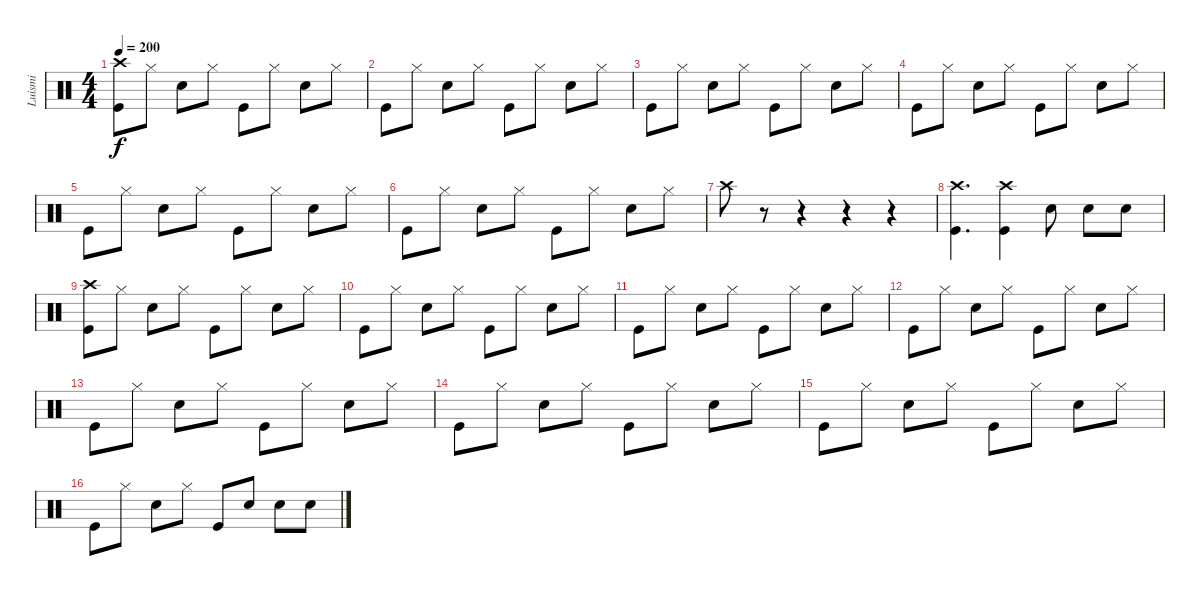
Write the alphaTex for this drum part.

\track ("Luismi" "Luismi") {instrument percussion}
\staff {score}
\articulation defaults
\ts (4 4)
\tempo 200
\clef neutral
\ks c
("Crash high (hit)" "Kick (hit)").8{dy f} "Hi-Hat (closed)".8 "Snare (hit) 2".8 "Hi-Hat (closed)".8 "Kick (hit)".8 "Hi-Hat (closed)".8 "Snare (hit) 2".8 "Hi-Hat (closed)".8 |
"Kick (hit)".8 "Hi-Hat (closed)".8 "Snare (hit) 2".8 "Hi-Hat (closed)".8 "Kick (hit)".8 "Hi-Hat (closed)".8 "Snare (hit) 2".8 "Hi-Hat (closed)".8 |
"Kick (hit)".8 "Hi-Hat (closed)".8 "Snare (hit) 2".8 "Hi-Hat (closed)".8 "Kick (hit)".8 "Hi-Hat (closed)".8 "Snare (hit) 2".8 "Hi-Hat (closed)".8 |
"Kick (hit)".8 "Hi-Hat (closed)".8 "Snare (hit) 2".8 "Hi-Hat (closed)".8 "Kick (hit)".8 "Hi-Hat (closed)".8 "Snare (hit) 2".8 "Hi-Hat (closed)".8 |
"Kick (hit)".8 "Hi-Hat (closed)".8 "Snare (hit) 2".8 "Hi-Hat (closed)".8 "Kick (hit)".8 "Hi-Hat (closed)".8 "Snare (hit) 2".8 "Hi-Hat (closed)".8 |
"Kick (hit)".8 "Hi-Hat (closed)".8 "Snare (hit) 2".8 "Hi-Hat (closed)".8 "Kick (hit)".8 "Hi-Hat (closed)".8 "Snare (hit) 2".8 "Hi-Hat (closed)".8 |
"Crash high (hit)".8 r.8 r.4 r.4 r.4 |
("Kick (hit)" "Crash high (hit)").4{d} ("Kick (hit)" "Crash high (hit)").4 "Snare (hit) 2".8 "Snare (hit) 2".8 "Snare (hit) 2".8 |
("Crash high (hit)" "Kick (hit)").8 "Hi-Hat (closed)".8 "Snare (hit) 2".8 "Hi-Hat (closed)".8 "Kick (hit)".8 "Hi-Hat (closed)".8 "Snare (hit) 2".8 "Hi-Hat (closed)".8 |
"Kick (hit)".8 "Hi-Hat (closed)".8 "Snare (hit) 2".8 "Hi-Hat (closed)".8 "Kick (hit)".8 "Hi-Hat (closed)".8 "Snare (hit) 2".8 "Hi-Hat (closed)".8 |
"Kick (hit)".8 "Hi-Hat (closed)".8 "Snare (hit) 2".8 "Hi-Hat (closed)".8 "Kick (hit)".8 "Hi-Hat (closed)".8 "Snare (hit) 2".8 "Hi-Hat (closed)".8 |
"Kick (hit)".8 "Hi-Hat (closed)".8 "Snare (hit) 2".8 "Hi-Hat (closed)".8 "Kick (hit)".8 "Hi-Hat (closed)".8 "Snare (hit) 2".8 "Hi-Hat (closed)".8 |
"Kick (hit)".8 "Hi-Hat (closed)".8 "Snare (hit) 2".8 "Hi-Hat (closed)".8 "Kick (hit)".8 "Hi-Hat (closed)".8 "Snare (hit) 2".8 "Hi-Hat (closed)".8 |
"Kick (hit)".8 "Hi-Hat (closed)".8 "Snare (hit) 2".8 "Hi-Hat (closed)".8 "Kick (hit)".8 "Hi-Hat (closed)".8 "Snare (hit) 2".8 "Hi-Hat (closed)".8 |
"Kick (hit)".8 "Hi-Hat (closed)".8 "Snare (hit) 2".8 "Hi-Hat (closed)".8 "Kick (hit)".8 "Hi-Hat (closed)".8 "Snare (hit) 2".8 "Hi-Hat (closed)".8 |
"Kick (hit)".8 "Hi-Hat (closed)".8 "Snare (hit) 2".8 "Hi-Hat (closed)".8 "Kick (hit)".8 "Snare (hit) 2".8 "Snare (hit) 2".8 "Snare (hit) 2".8
